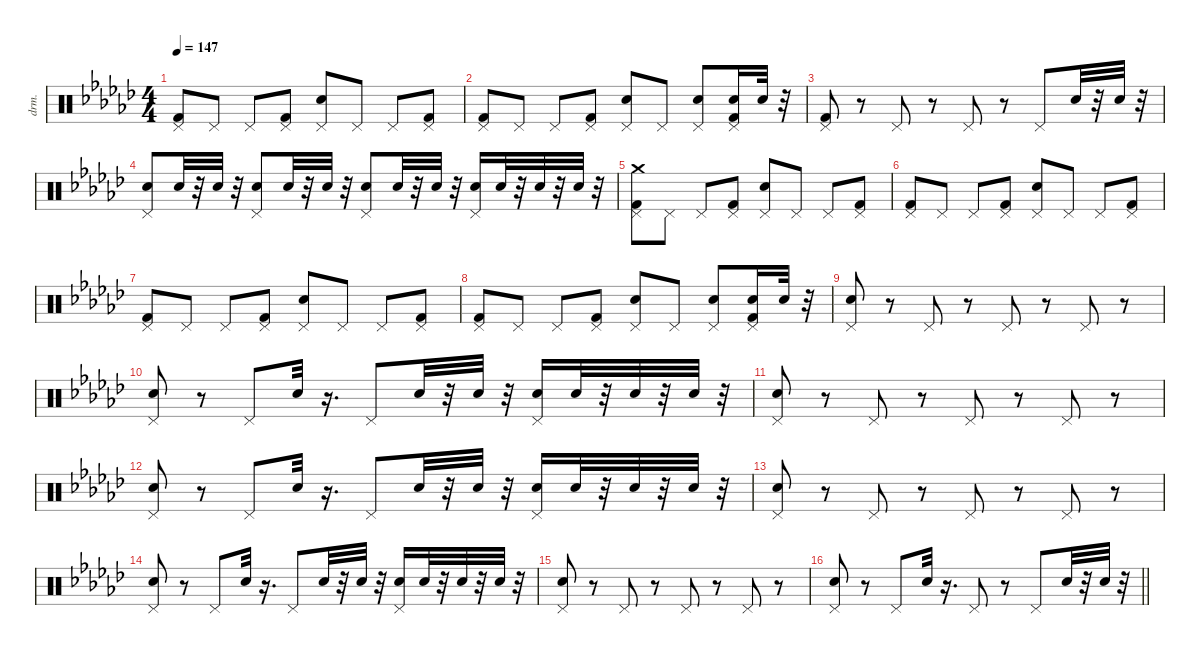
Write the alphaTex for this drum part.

\defaultSystemsLayout 4
\hideDynamics
\bracketExtendMode nobrackets
\otherSystemsTrackNameOrientation horizontal
\track ("Drums" "drm.") {instrument percussion}
\staff {score}
\articulation defaults
\ts (4 4)
\tempo 147
\clef neutral
\ks ebminor
("Pedal Hi-Hat (hit)"{acc forcenatural} "Kick (hit) 2"{acc forcenatural}).8{dy f beam Up} "Pedal Hi-Hat (hit)"{acc forcenatural}.8{dy mp beam Up} "Pedal Hi-Hat (hit)"{acc forcenatural}.8{dy f beam Up} ("Pedal Hi-Hat (hit)"{acc forcenatural} "Kick (hit) 2"{acc forcenatural}).8{dy mp beam Up} ("Pedal Hi-Hat (hit)"{acc forcenatural} "Snare (hit) 2"{acc forcenatural}).8{dy f beam Up} "Pedal Hi-Hat (hit)"{acc forcenatural}.8{dy mp beam Up} "Pedal Hi-Hat (hit)"{acc forcenatural}.8{dy f beam Up} ("Pedal Hi-Hat (hit)"{acc forcenatural} "Kick (hit) 2"{acc forcenatural}).8{dy mp beam Up} |
("Pedal Hi-Hat (hit)"{acc forcenatural} "Kick (hit) 2"{acc forcenatural}).8{dy f beam Up} "Pedal Hi-Hat (hit)"{acc forcenatural}.8{dy mp beam Up} "Pedal Hi-Hat (hit)"{acc forcenatural}.8{dy f beam Up} ("Pedal Hi-Hat (hit)"{acc forcenatural} "Kick (hit) 2"{acc forcenatural}).8{dy mp beam Up} ("Pedal Hi-Hat (hit)"{acc forcenatural} "Snare (hit) 2"{acc forcenatural}).8{dy f beam Up} "Pedal Hi-Hat (hit)"{acc forcenatural}.8{dy mp beam Up} ("Pedal Hi-Hat (hit)"{acc forcenatural} "Snare (hit) 2"{acc forcenatural}).8{dy f beam Up} ("Pedal Hi-Hat (hit)"{acc forcenatural} "Snare (hit) 2"{acc forcenatural} "Kick (hit) 2"{acc forcenatural}).16{dy mp beam Up} "Snare (hit) 2"{acc forcenatural}.32{dy f beam Up} r.32{beam Up} |
("Pedal Hi-Hat (hit)"{acc forcenatural} "Kick (hit) 2"{acc forcenatural}).8{beam Up} r.8{beam Up} "Pedal Hi-Hat (hit)"{acc forcenatural}.8{beam Up} r.8{beam Up} "Pedal Hi-Hat (hit)"{acc forcenatural}.8{beam Up} r.8{beam Up} "Pedal Hi-Hat (hit)"{acc forcenatural}.8{beam Up} "Snare (hit) 2"{acc forcenatural}.32{dy mf beam Up} r.32{beam Up} "Snare (hit) 2"{acc forcenatural}.32{beam Up} r.32{beam Up} |
("Pedal Hi-Hat (hit)"{acc forcenatural} "Snare (hit) 2"{acc forcenatural}).8{dy f beam Up} "Snare (hit) 2"{acc forcenatural}.32{dy mf beam Up} r.32{beam Up} "Snare (hit) 2"{acc forcenatural}.32{beam Up} r.32{beam Up} ("Pedal Hi-Hat (hit)"{acc forcenatural} "Snare (hit) 2"{acc forcenatural}).8{dy f beam Up} "Snare (hit) 2"{acc forcenatural}.32{dy mf beam Up} r.32{beam Up} "Snare (hit) 2"{acc forcenatural}.32{beam Up} r.32{beam Up} ("Pedal Hi-Hat (hit)"{acc forcenatural} "Snare (hit) 2"{acc forcenatural}).8{dy f beam Up} "Snare (hit) 2"{acc forcenatural}.32{dy mf beam Up} r.32{beam Up} "Snare (hit) 2"{acc forcenatural}.32{beam Up} r.32{beam Up} ("Pedal Hi-Hat (hit)"{acc forcenatural} "Snare (hit) 2"{acc forcenatural}).16{dy f beam Up} "Snare (hit) 2"{acc forcenatural}.32{dy mf beam Up} r.32{beam Up} "Snare (hit) 2"{acc forcenatural}.32{beam Up} r.32{beam Up} "Snare (hit) 2"{acc forcenatural}.32{beam Up} r.32{beam Up} |
("Pedal Hi-Hat (hit)"{acc forcenatural} "Kick (hit) 2"{acc forcenatural} "Crash medium (hit)"{acc forcenatural}).8{dy f beam Down} "Pedal Hi-Hat (hit)"{acc forcenatural}.8{dy mp beam Down} "Pedal Hi-Hat (hit)"{acc forcenatural}.8{dy f beam Up} ("Pedal Hi-Hat (hit)"{acc forcenatural} "Kick (hit) 2"{acc forcenatural}).8{dy mp beam Up} ("Pedal Hi-Hat (hit)"{acc forcenatural} "Snare (hit) 2"{acc forcenatural}).8{dy f beam Up} "Pedal Hi-Hat (hit)"{acc forcenatural}.8{dy mp beam Up} "Pedal Hi-Hat (hit)"{acc forcenatural}.8{dy f beam Up} ("Pedal Hi-Hat (hit)"{acc forcenatural} "Kick (hit) 2"{acc forcenatural}).8{dy mp beam Up} |
("Pedal Hi-Hat (hit)"{acc forcenatural} "Kick (hit) 2"{acc forcenatural}).8{dy f beam Up} "Pedal Hi-Hat (hit)"{acc forcenatural}.8{dy mp beam Up} "Pedal Hi-Hat (hit)"{acc forcenatural}.8{dy f beam Up} ("Pedal Hi-Hat (hit)"{acc forcenatural} "Kick (hit) 2"{acc forcenatural}).8{dy mp beam Up} ("Pedal Hi-Hat (hit)"{acc forcenatural} "Snare (hit) 2"{acc forcenatural}).8{dy f beam Up} "Pedal Hi-Hat (hit)"{acc forcenatural}.8{dy mp beam Up} "Pedal Hi-Hat (hit)"{acc forcenatural}.8{dy f beam Up} ("Pedal Hi-Hat (hit)"{acc forcenatural} "Kick (hit) 2"{acc forcenatural}).8{dy mp beam Up} |
("Pedal Hi-Hat (hit)"{acc forcenatural} "Kick (hit) 2"{acc forcenatural}).8{dy f beam Up} "Pedal Hi-Hat (hit)"{acc forcenatural}.8{dy mp beam Up} "Pedal Hi-Hat (hit)"{acc forcenatural}.8{dy f beam Up} ("Pedal Hi-Hat (hit)"{acc forcenatural} "Kick (hit) 2"{acc forcenatural}).8{dy mp beam Up} ("Pedal Hi-Hat (hit)"{acc forcenatural} "Snare (hit) 2"{acc forcenatural}).8{dy f beam Up} "Pedal Hi-Hat (hit)"{acc forcenatural}.8{dy mp beam Up} "Pedal Hi-Hat (hit)"{acc forcenatural}.8{dy f beam Up} ("Pedal Hi-Hat (hit)"{acc forcenatural} "Kick (hit) 2"{acc forcenatural}).8{dy mp beam Up} |
("Pedal Hi-Hat (hit)"{acc forcenatural} "Kick (hit) 2"{acc forcenatural}).8{dy f beam Up} "Pedal Hi-Hat (hit)"{acc forcenatural}.8{dy mp beam Up} "Pedal Hi-Hat (hit)"{acc forcenatural}.8{dy f beam Up} ("Pedal Hi-Hat (hit)"{acc forcenatural} "Kick (hit) 2"{acc forcenatural}).8{dy mp beam Up} ("Pedal Hi-Hat (hit)"{acc forcenatural} "Snare (hit) 2"{acc forcenatural}).8{dy f beam Up} "Pedal Hi-Hat (hit)"{acc forcenatural}.8{dy mp beam Up} ("Pedal Hi-Hat (hit)"{acc forcenatural} "Snare (hit) 2"{acc forcenatural}).8{dy f beam Up} ("Pedal Hi-Hat (hit)"{acc forcenatural} "Snare (hit) 2"{acc forcenatural} "Kick (hit) 2"{acc forcenatural}).16{dy mp beam Up} "Snare (hit) 2"{acc forcenatural}.32{dy f beam Up} r.32{beam Up} |
("Pedal Hi-Hat (hit)"{acc forcenatural} "Snare (hit) 2"{acc forcenatural}).8{beam Up} r.8{beam Up} "Pedal Hi-Hat (hit)"{acc forcenatural}.8{beam Up} r.8{beam Up} "Pedal Hi-Hat (hit)"{acc forcenatural}.8{beam Up} r.8{beam Up} "Pedal Hi-Hat (hit)"{acc forcenatural}.8{beam Up} r.8{beam Up} |
("Pedal Hi-Hat (hit)"{acc forcenatural} "Snare (hit) 2"{acc forcenatural}).8{beam Up} r.8{beam Up} "Pedal Hi-Hat (hit)"{acc forcenatural}.8{beam Up} "Snare (hit) 2"{acc forcenatural}.32{beam Up} r.16{d beam Up} "Pedal Hi-Hat (hit)"{acc forcenatural}.8{beam Up} "Snare (hit) 2"{acc forcenatural}.32{dy p beam Up} r.32{beam Up} "Snare (hit) 2"{acc forcenatural}.32{dy mp beam Up} r.32{beam Up} ("Pedal Hi-Hat (hit)"{acc forcenatural} "Snare (hit) 2"{acc forcenatural}).16{dy f beam Up} "Snare (hit) 2"{acc forcenatural}.32{dy mf beam Up} r.32{beam Up} "Snare (hit) 2"{acc forcenatural}.32{dy f beam Up} r.32{beam Up} "Snare (hit) 2"{acc forcenatural}.32{dy ff beam Up} r.32{beam Up} |
("Pedal Hi-Hat (hit)"{acc forcenatural} "Snare (hit) 2"{acc forcenatural}).8{dy f beam Up} r.8{beam Up} "Pedal Hi-Hat (hit)"{acc forcenatural}.8{beam Up} r.8{beam Up} "Pedal Hi-Hat (hit)"{acc forcenatural}.8{beam Up} r.8{beam Up} "Pedal Hi-Hat (hit)"{acc forcenatural}.8{beam Up} r.8{beam Up} |
("Pedal Hi-Hat (hit)"{acc forcenatural} "Snare (hit) 2"{acc forcenatural}).8{beam Up} r.8{beam Up} "Pedal Hi-Hat (hit)"{acc forcenatural}.8{beam Up} "Snare (hit) 2"{acc forcenatural}.32{beam Up} r.16{d beam Up} "Pedal Hi-Hat (hit)"{acc forcenatural}.8{beam Up} "Snare (hit) 2"{acc forcenatural}.32{dy p beam Up} r.32{beam Up} "Snare (hit) 2"{acc forcenatural}.32{dy mp beam Up} r.32{beam Up} ("Pedal Hi-Hat (hit)"{acc forcenatural} "Snare (hit) 2"{acc forcenatural}).16{dy f beam Up} "Snare (hit) 2"{acc forcenatural}.32{dy mf beam Up} r.32{beam Up} "Snare (hit) 2"{acc forcenatural}.32{dy f beam Up} r.32{beam Up} "Snare (hit) 2"{acc forcenatural}.32{dy ff beam Up} r.32{beam Up} |
("Pedal Hi-Hat (hit)"{acc forcenatural} "Snare (hit) 2"{acc forcenatural}).8{dy f beam Up} r.8{beam Up} "Pedal Hi-Hat (hit)"{acc forcenatural}.8{beam Up} r.8{beam Up} "Pedal Hi-Hat (hit)"{acc forcenatural}.8{beam Up} r.8{beam Up} "Pedal Hi-Hat (hit)"{acc forcenatural}.8{beam Up} r.8{beam Up} |
("Pedal Hi-Hat (hit)"{acc forcenatural} "Snare (hit) 2"{acc forcenatural}).8{beam Up} r.8{beam Up} "Pedal Hi-Hat (hit)"{acc forcenatural}.8{beam Up} "Snare (hit) 2"{acc forcenatural}.32{beam Up} r.16{d beam Up} "Pedal Hi-Hat (hit)"{acc forcenatural}.8{beam Up} "Snare (hit) 2"{acc forcenatural}.32{dy p beam Up} r.32{beam Up} "Snare (hit) 2"{acc forcenatural}.32{dy mp beam Up} r.32{beam Up} ("Pedal Hi-Hat (hit)"{acc forcenatural} "Snare (hit) 2"{acc forcenatural}).16{dy f beam Up} "Snare (hit) 2"{acc forcenatural}.32{dy mf beam Up} r.32{beam Up} "Snare (hit) 2"{acc forcenatural}.32{dy f beam Up} r.32{beam Up} "Snare (hit) 2"{acc forcenatural}.32{dy ff beam Up} r.32{beam Up} |
("Pedal Hi-Hat (hit)"{acc forcenatural} "Snare (hit) 2"{acc forcenatural}).8{dy f beam Up} r.8{beam Up} "Pedal Hi-Hat (hit)"{acc forcenatural}.8{beam Up} r.8{beam Up} "Pedal Hi-Hat (hit)"{acc forcenatural}.8{beam Up} r.8{beam Up} "Pedal Hi-Hat (hit)"{acc forcenatural}.8{beam Up} r.8{beam Up} |
\barLineRight lightlight
("Pedal Hi-Hat (hit)"{acc forcenatural} "Snare (hit) 2"{acc forcenatural}).8{beam Up} r.8{beam Up} "Pedal Hi-Hat (hit)"{acc forcenatural}.8{beam Up} "Snare (hit) 2"{acc forcenatural}.32{beam Up} r.16{d beam Up} "Pedal Hi-Hat (hit)"{acc forcenatural}.8{beam Up} r.8{beam Up} "Pedal Hi-Hat (hit)"{acc forcenatural}.8{beam Up} "Snare (hit) 2"{acc forcenatural}.32{beam Up} r.32{beam Up} "Snare (hit) 2"{acc forcenatural}.32{dy ff beam Up} r.32{beam Up}
